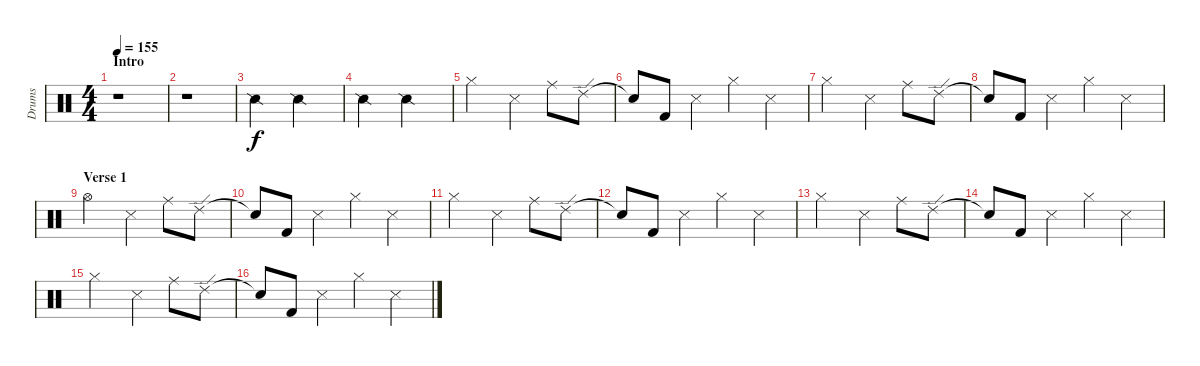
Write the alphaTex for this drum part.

\track ("Drums" "Drums") {instrument percussion}
\staff {score}
\articulation defaults
\ts (4 4)
\section ("" "Intro")
\tempo 155
\tempo 125
\tempo 155
\clef neutral
\ks c
r.1{dy f} |
r.1 |
"Snare (side stick) 2".2 "Snare (side stick) 2".2 |
"Snare (side stick) 2".2 "Snare (side stick) 2".2 |
"Hi-Hat (closed)".2 "Snare (side stick) 3".4 "Ride (middle)".8 "Ride (edge) 2".8 |
"Snare (hit)"{t}.8 "Kick (hit) 2".8 "Snare (side stick) 3".4 "Hi-Hat (closed)".4 "Snare (side stick) 3".4 |
"Hi-Hat (closed)".2 "Snare (side stick) 3".4 "Ride (middle)".8 "Ride (edge) 2".8 |
"Snare (hit)"{t}.8 "Kick (hit) 2".8 "Snare (side stick) 3".4 "Hi-Hat (closed)".4 "Snare (side stick) 3".4 |
\section ("" "Verse 1")
"Hi-Hat (open)".2 "Snare (side stick) 3".4 "Ride (middle)".8 "Ride (edge) 2".8 |
"Snare (hit)"{t}.8 "Kick (hit) 2".8 "Snare (side stick) 3".4 "Hi-Hat (closed)".4 "Snare (side stick) 3".4 |
"Hi-Hat (closed)".2 "Snare (side stick) 3".4 "Ride (middle)".8 "Ride (edge) 2".8 |
"Snare (hit)"{t}.8 "Kick (hit) 2".8 "Snare (side stick) 3".4 "Hi-Hat (closed)".4 "Snare (side stick) 3".4 |
"Hi-Hat (closed)".2 "Snare (side stick) 3".4 "Ride (middle)".8 "Ride (edge) 2".8 |
"Snare (hit)"{t}.8 "Kick (hit) 2".8 "Snare (side stick) 3".4 "Hi-Hat (closed)".4 "Snare (side stick) 3".4 |
"Hi-Hat (closed)".2 "Snare (side stick) 3".4 "Ride (middle)".8 "Ride (edge) 2".8 |
"Snare (hit)"{t}.8 "Kick (hit) 2".8 "Snare (side stick) 3".4 "Hi-Hat (closed)".4 "Snare (side stick) 3".4
